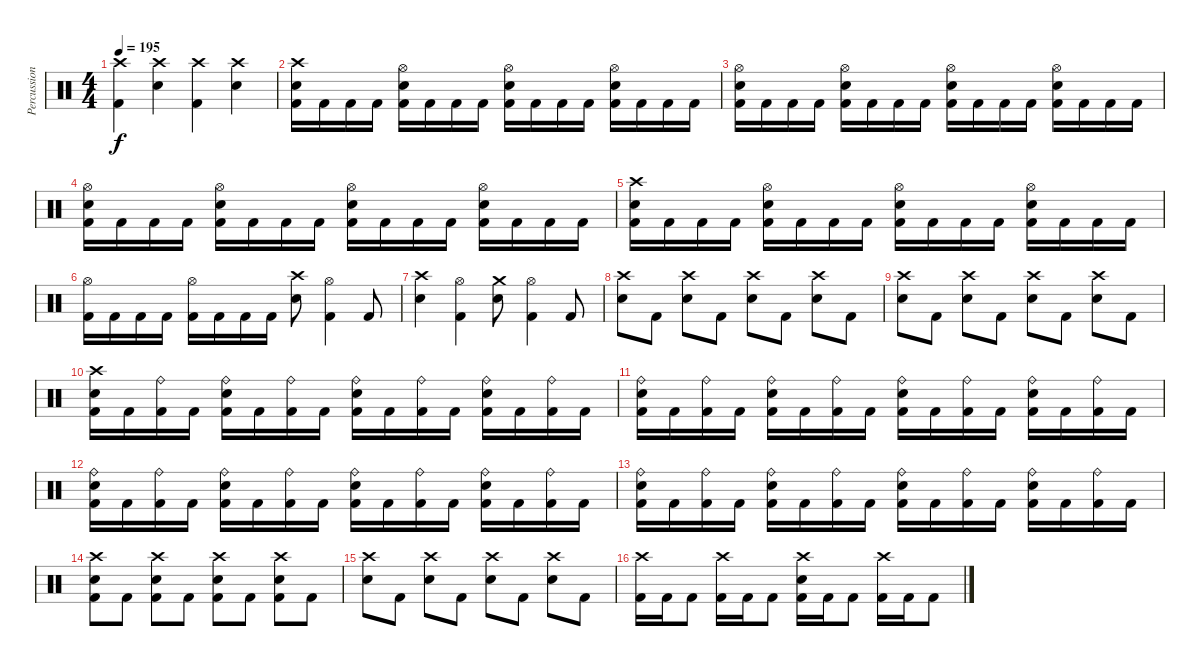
\track ("Percussion" "Percussion") {instrument percussion}
\staff {score}
\articulation defaults
\ts (4 4)
\tempo 195
\clef neutral
\ks c
("Crash high (hit)" "Kick (hit) 2").4{dy f} ("Crash high (hit)" "Electric Snare (hit)").4 ("Crash high (hit)" "Kick (hit) 2").4 ("Crash high (hit)" "Electric Snare (hit)").4 |
("Crash high (hit)" "Electric Snare (hit)" "Kick (hit) 2").16 "Kick (hit) 2".16 "Kick (hit) 2".16 "Kick (hit) 2".16 ("Hi-Hat (open)" "Electric Snare (hit)" "Kick (hit) 2").16 "Kick (hit) 2".16 "Kick (hit) 2".16 "Kick (hit) 2".16 ("Hi-Hat (open)" "Electric Snare (hit)" "Kick (hit) 2").16 "Kick (hit) 2".16 "Kick (hit) 2".16 "Kick (hit) 2".16 ("Hi-Hat (open)" "Electric Snare (hit)" "Kick (hit) 2").16 "Kick (hit) 2".16 "Kick (hit) 2".16 "Kick (hit) 2".16 |
("Hi-Hat (open)" "Electric Snare (hit)" "Kick (hit) 2").16 "Kick (hit) 2".16 "Kick (hit) 2".16 "Kick (hit) 2".16 ("Hi-Hat (open)" "Electric Snare (hit)" "Kick (hit) 2").16 "Kick (hit) 2".16 "Kick (hit) 2".16 "Kick (hit) 2".16 ("Hi-Hat (open)" "Electric Snare (hit)" "Kick (hit) 2").16 "Kick (hit) 2".16 "Kick (hit) 2".16 "Kick (hit) 2".16 ("Hi-Hat (open)" "Electric Snare (hit)" "Kick (hit) 2").16 "Kick (hit) 2".16 "Kick (hit) 2".16 "Kick (hit) 2".16 |
("Hi-Hat (open)" "Electric Snare (hit)" "Kick (hit) 2").16 "Kick (hit) 2".16 "Kick (hit) 2".16 "Kick (hit) 2".16 ("Hi-Hat (open)" "Electric Snare (hit)" "Kick (hit) 2").16 "Kick (hit) 2".16 "Kick (hit) 2".16 "Kick (hit) 2".16 ("Hi-Hat (open)" "Electric Snare (hit)" "Kick (hit) 2").16 "Kick (hit) 2".16 "Kick (hit) 2".16 "Kick (hit) 2".16 ("Hi-Hat (open)" "Electric Snare (hit)" "Kick (hit) 2").16 "Kick (hit) 2".16 "Kick (hit) 2".16 "Kick (hit) 2".16 |
("Crash high (hit)" "Electric Snare (hit)" "Kick (hit) 2").16 "Kick (hit) 2".16 "Kick (hit) 2".16 "Kick (hit) 2".16 ("Hi-Hat (open)" "Electric Snare (hit)" "Kick (hit) 2").16 "Kick (hit) 2".16 "Kick (hit) 2".16 "Kick (hit) 2".16 ("Hi-Hat (open)" "Electric Snare (hit)" "Kick (hit) 2").16 "Kick (hit) 2".16 "Kick (hit) 2".16 "Kick (hit) 2".16 ("Hi-Hat (open)" "Electric Snare (hit)" "Kick (hit) 2").16 "Kick (hit) 2".16 "Kick (hit) 2".16 "Kick (hit) 2".16 |
("Hi-Hat (open)" "Kick (hit) 2").16 "Kick (hit) 2".16 "Kick (hit) 2".16 "Kick (hit) 2".16 ("Hi-Hat (open)" "Kick (hit) 2").16 "Kick (hit) 2".16 "Kick (hit) 2".16 "Kick (hit) 2".16 ("Crash high (hit)" "Electric Snare (hit)").8 ("Hi-Hat (open)" "Kick (hit) 2").4 "Kick (hit) 2".8 |
("Crash high (hit)" "Electric Snare (hit)").4 ("Hi-Hat (open)" "Kick (hit) 2").4 ("Crash medium (hit)" "Electric Snare (hit)").8 ("Hi-Hat (open)" "Kick (hit) 2").4 "Kick (hit) 2".8 |
("Crash high (hit)" "Electric Snare (hit)").8 "Kick (hit) 2".8 ("Crash high (hit)" "Electric Snare (hit)").8 "Kick (hit) 2".8 ("Crash high (hit)" "Electric Snare (hit)").8 "Kick (hit) 2".8 ("Crash high (hit)" "Electric Snare (hit)").8 "Kick (hit) 2".8 |
("Crash high (hit)" "Electric Snare (hit)").8 "Kick (hit) 2".8 ("Crash high (hit)" "Electric Snare (hit)").8 "Kick (hit) 2".8 ("Crash high (hit)" "Electric Snare (hit)").8 "Kick (hit) 2".8 ("Crash high (hit)" "Electric Snare (hit)").8 "Kick (hit) 2".8 |
("Crash high (hit)" "Electric Snare (hit)" "Kick (hit) 2").16 "Kick (hit) 2".16 ("Ride (bell)" "Kick (hit) 2").16 "Kick (hit) 2".16 ("Ride (bell)" "Electric Snare (hit)" "Kick (hit) 2").16 "Kick (hit) 2".16 ("Ride (bell)" "Kick (hit) 2").16 "Kick (hit) 2".16 ("Ride (bell)" "Electric Snare (hit)" "Kick (hit) 2").16 "Kick (hit) 2".16 ("Ride (bell)" "Kick (hit) 2").16 "Kick (hit) 2".16 ("Ride (bell)" "Electric Snare (hit)" "Kick (hit) 2").16 "Kick (hit) 2".16 ("Ride (bell)" "Kick (hit) 2").16 "Kick (hit) 2".16 |
("Ride (bell)" "Electric Snare (hit)" "Kick (hit) 2").16 "Kick (hit) 2".16 ("Ride (bell)" "Kick (hit) 2").16 "Kick (hit) 2".16 ("Ride (bell)" "Electric Snare (hit)" "Kick (hit) 2").16 "Kick (hit) 2".16 ("Ride (bell)" "Kick (hit) 2").16 "Kick (hit) 2".16 ("Ride (bell)" "Electric Snare (hit)" "Kick (hit) 2").16 "Kick (hit) 2".16 ("Ride (bell)" "Kick (hit) 2").16 "Kick (hit) 2".16 ("Ride (bell)" "Electric Snare (hit)" "Kick (hit) 2").16 "Kick (hit) 2".16 ("Ride (bell)" "Kick (hit) 2").16 "Kick (hit) 2".16 |
("Ride (bell)" "Electric Snare (hit)" "Kick (hit) 2").16 "Kick (hit) 2".16 ("Ride (bell)" "Kick (hit) 2").16 "Kick (hit) 2".16 ("Ride (bell)" "Electric Snare (hit)" "Kick (hit) 2").16 "Kick (hit) 2".16 ("Ride (bell)" "Kick (hit) 2").16 "Kick (hit) 2".16 ("Ride (bell)" "Electric Snare (hit)" "Kick (hit) 2").16 "Kick (hit) 2".16 ("Ride (bell)" "Kick (hit) 2").16 "Kick (hit) 2".16 ("Ride (bell)" "Electric Snare (hit)" "Kick (hit) 2").16 "Kick (hit) 2".16 ("Ride (bell)" "Kick (hit) 2").16 "Kick (hit) 2".16 |
("Ride (bell)" "Electric Snare (hit)" "Kick (hit) 2").16 "Kick (hit) 2".16 ("Ride (bell)" "Kick (hit) 2").16 "Kick (hit) 2".16 ("Ride (bell)" "Electric Snare (hit)" "Kick (hit) 2").16 "Kick (hit) 2".16 ("Ride (bell)" "Kick (hit) 2").16 "Kick (hit) 2".16 ("Ride (bell)" "Electric Snare (hit)" "Kick (hit) 2").16 "Kick (hit) 2".16 ("Ride (bell)" "Kick (hit) 2").16 "Kick (hit) 2".16 ("Ride (bell)" "Electric Snare (hit)" "Kick (hit) 2").16 "Kick (hit) 2".16 ("Ride (bell)" "Kick (hit) 2").16 "Kick (hit) 2".16 |
("Crash high (hit)" "Electric Snare (hit)" "Kick (hit) 2").8 "Kick (hit) 2".8 ("Crash high (hit)" "Electric Snare (hit)" "Kick (hit) 2").8 "Kick (hit) 2".8 ("Crash high (hit)" "Electric Snare (hit)" "Kick (hit) 2").8 "Kick (hit) 2".8 ("Crash high (hit)" "Electric Snare (hit)" "Kick (hit) 2").8 "Kick (hit) 2".8 |
("Crash high (hit)" "Electric Snare (hit)").8 "Kick (hit) 2".8 ("Crash high (hit)" "Electric Snare (hit)").8 "Kick (hit) 2".8 ("Crash high (hit)" "Electric Snare (hit)").8 "Kick (hit) 2".8 ("Crash high (hit)" "Electric Snare (hit)").8 "Kick (hit) 2".8 |
("Crash high (hit)" "Kick (hit) 2").16 "Kick (hit) 2".16 "Kick (hit) 2".8 ("Crash high (hit)" "Kick (hit) 2").16 "Kick (hit) 2".16 "Kick (hit) 2".8 ("Crash high (hit)" "Electric Snare (hit)" "Kick (hit) 2").16 "Kick (hit) 2".16 "Kick (hit) 2".8 ("Crash high (hit)" "Kick (hit) 2").16 "Kick (hit) 2".16 "Kick (hit) 2".8
